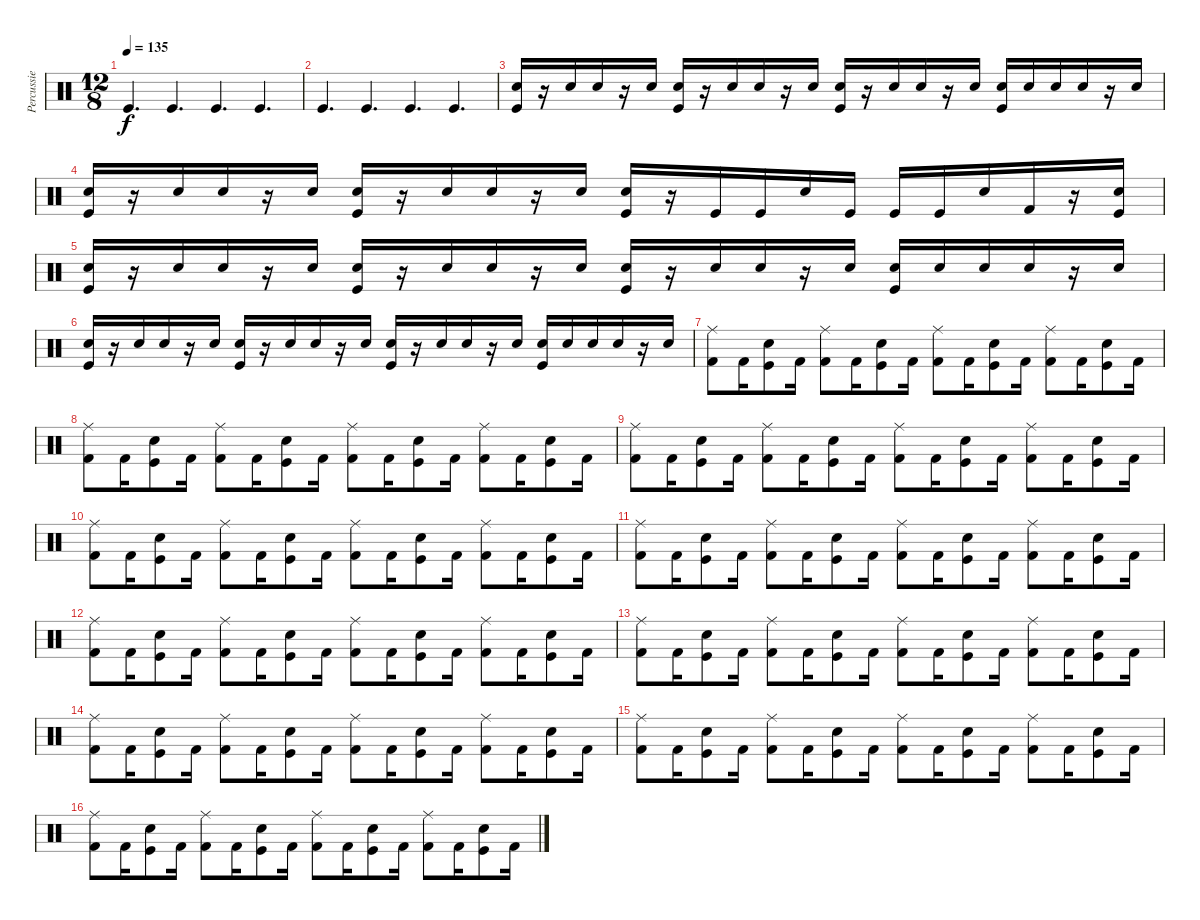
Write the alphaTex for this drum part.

\track ("Percussie" "Percussie") {instrument percussion}
\staff {score}
\articulation defaults
\ts (12 8)
\tempo 135
\clef neutral
\ks c "Kick (hit)".4{d dy f} "Kick (hit)".4{d} "Kick (hit)".4{d} "Kick (hit)".4{d}
|
"Kick (hit)".4{d} "Kick (hit)".4{d} "Kick (hit)".4{d} "Kick (hit)".4{d} |
("Electric Snare (hit)" "Kick (hit)").16 r.16 "Electric Snare (hit)".16 "Electric Snare (hit)".16 r.16 "Electric Snare (hit)".16 ("Electric Snare (hit)" "Kick (hit)").16 r.16 "Electric Snare (hit)".16 "Electric Snare (hit)".16 r.16 "Electric Snare (hit)".16 ("Electric Snare (hit)" "Kick (hit)").16 r.16 "Electric Snare (hit)".16 "Electric Snare (hit)".16 r.16 "Electric Snare (hit)".16 ("Electric Snare (hit)" "Kick (hit)").16 "Electric Snare (hit)".16 "Electric Snare (hit)".16 "Electric Snare (hit)".16 r.16 "Electric Snare (hit)".16 |
("Electric Snare (hit)" "Kick (hit)").16 r.16 "Electric Snare (hit)".16 "Electric Snare (hit)".16 r.16 "Electric Snare (hit)".16 ("Electric Snare (hit)" "Kick (hit)").16 r.16 "Electric Snare (hit)".16 "Electric Snare (hit)".16 r.16 "Electric Snare (hit)".16 ("Electric Snare (hit)" "Kick (hit)").16 r.16 "Kick (hit)".16 "Kick (hit)".16 "Electric Snare (hit)".16 "Kick (hit)".16 "Kick (hit)".16 "Kick (hit)".16 "Electric Snare (hit)".16 "Kick (hit) 2".16 r.16 ("Electric Snare (hit)" "Kick (hit)").16 |
("Electric Snare (hit)" "Kick (hit)").16 r.16 "Electric Snare (hit)".16 "Electric Snare (hit)".16 r.16 "Electric Snare (hit)".16 ("Electric Snare (hit)" "Kick (hit)").16 r.16 "Electric Snare (hit)".16 "Electric Snare (hit)".16 r.16 "Electric Snare (hit)".16 ("Electric Snare (hit)" "Kick (hit)").16 r.16 "Electric Snare (hit)".16 "Electric Snare (hit)".16 r.16 "Electric Snare (hit)".16 ("Electric Snare (hit)" "Kick (hit)").16 "Electric Snare (hit)".16 "Electric Snare (hit)".16 "Electric Snare (hit)".16 r.16 "Electric Snare (hit)".16 |
("Electric Snare (hit)" "Kick (hit)").16 r.16 "Electric Snare (hit)".16 "Electric Snare (hit)".16 r.16 "Electric Snare (hit)".16 ("Electric Snare (hit)" "Kick (hit)").16 r.16 "Electric Snare (hit)".16 "Electric Snare (hit)".16 r.16 "Electric Snare (hit)".16 ("Electric Snare (hit)" "Kick (hit)").16 r.16 "Electric Snare (hit)".16 "Electric Snare (hit)".16 r.16 "Electric Snare (hit)".16 ("Electric Snare (hit)" "Kick (hit)").16 "Electric Snare (hit)".16 "Electric Snare (hit)".16 "Electric Snare (hit)".16 r.16 "Electric Snare (hit)".16 |
("Ride (middle)" "Kick (hit) 2").8 "Kick (hit) 2".16 ("Electric Snare (hit)" "Kick (hit)").8 "Kick (hit) 2".16 ("Ride (middle)" "Kick (hit) 2").8 "Kick (hit) 2".16 ("Electric Snare (hit)" "Kick (hit)").8 "Kick (hit) 2".16 ("Ride (middle)" "Kick (hit) 2").8 "Kick (hit) 2".16 ("Electric Snare (hit)" "Kick (hit)").8 "Kick (hit) 2".16 ("Ride (middle)" "Kick (hit) 2").8 "Kick (hit) 2".16 ("Electric Snare (hit)" "Kick (hit)").8 "Kick (hit) 2".16 |
("Ride (middle)" "Kick (hit) 2").8 "Kick (hit) 2".16 ("Electric Snare (hit)" "Kick (hit)").8 "Kick (hit) 2".16 ("Ride (middle)" "Kick (hit) 2").8 "Kick (hit) 2".16 ("Electric Snare (hit)" "Kick (hit)").8 "Kick (hit) 2".16 ("Ride (middle)" "Kick (hit) 2").8 "Kick (hit) 2".16 ("Electric Snare (hit)" "Kick (hit)").8 "Kick (hit) 2".16 ("Ride (middle)" "Kick (hit) 2").8 "Kick (hit) 2".16 ("Electric Snare (hit)" "Kick (hit)").8 "Kick (hit) 2".16 |
("Ride (middle)" "Kick (hit) 2").8 "Kick (hit) 2".16 ("Electric Snare (hit)" "Kick (hit)").8 "Kick (hit) 2".16 ("Ride (middle)" "Kick (hit) 2").8 "Kick (hit) 2".16 ("Electric Snare (hit)" "Kick (hit)").8 "Kick (hit) 2".16 ("Ride (middle)" "Kick (hit) 2").8 "Kick (hit) 2".16 ("Electric Snare (hit)" "Kick (hit)").8 "Kick (hit) 2".16 ("Ride (middle)" "Kick (hit) 2").8 "Kick (hit) 2".16 ("Electric Snare (hit)" "Kick (hit)").8 "Kick (hit) 2".16 |
("Ride (middle)" "Kick (hit) 2").8 "Kick (hit) 2".16 ("Electric Snare (hit)" "Kick (hit)").8 "Kick (hit) 2".16 ("Ride (middle)" "Kick (hit) 2").8 "Kick (hit) 2".16 ("Electric Snare (hit)" "Kick (hit)").8 "Kick (hit) 2".16 ("Ride (middle)" "Kick (hit) 2").8 "Kick (hit) 2".16 ("Electric Snare (hit)" "Kick (hit)").8 "Kick (hit) 2".16 ("Ride (middle)" "Kick (hit) 2").8 "Kick (hit) 2".16 ("Electric Snare (hit)" "Kick (hit)").8 "Kick (hit) 2".16 |
("Ride (middle)" "Kick (hit) 2").8 "Kick (hit) 2".16 ("Electric Snare (hit)" "Kick (hit)").8 "Kick (hit) 2".16 ("Ride (middle)" "Kick (hit) 2").8 "Kick (hit) 2".16 ("Electric Snare (hit)" "Kick (hit)").8 "Kick (hit) 2".16 ("Ride (middle)" "Kick (hit) 2").8 "Kick (hit) 2".16 ("Electric Snare (hit)" "Kick (hit)").8 "Kick (hit) 2".16 ("Ride (middle)" "Kick (hit) 2").8 "Kick (hit) 2".16 ("Electric Snare (hit)" "Kick (hit)").8 "Kick (hit) 2".16 |
("Ride (middle)" "Kick (hit) 2").8 "Kick (hit) 2".16 ("Electric Snare (hit)" "Kick (hit)").8 "Kick (hit) 2".16 ("Ride (middle)" "Kick (hit) 2").8 "Kick (hit) 2".16 ("Electric Snare (hit)" "Kick (hit)").8 "Kick (hit) 2".16 ("Ride (middle)" "Kick (hit) 2").8 "Kick (hit) 2".16 ("Electric Snare (hit)" "Kick (hit)").8 "Kick (hit) 2".16 ("Ride (middle)" "Kick (hit) 2").8 "Kick (hit) 2".16 ("Electric Snare (hit)" "Kick (hit)").8 "Kick (hit) 2".16 |
("Ride (middle)" "Kick (hit) 2").8 "Kick (hit) 2".16 ("Electric Snare (hit)" "Kick (hit)").8 "Kick (hit) 2".16 ("Ride (middle)" "Kick (hit) 2").8 "Kick (hit) 2".16 ("Electric Snare (hit)" "Kick (hit)").8 "Kick (hit) 2".16 ("Ride (middle)" "Kick (hit) 2").8 "Kick (hit) 2".16 ("Electric Snare (hit)" "Kick (hit)").8 "Kick (hit) 2".16 ("Ride (middle)" "Kick (hit) 2").8 "Kick (hit) 2".16 ("Electric Snare (hit)" "Kick (hit)").8 "Kick (hit) 2".16 |
("Ride (middle)" "Kick (hit) 2").8 "Kick (hit) 2".16 ("Electric Snare (hit)" "Kick (hit)").8 "Kick (hit) 2".16 ("Ride (middle)" "Kick (hit) 2").8 "Kick (hit) 2".16 ("Electric Snare (hit)" "Kick (hit)").8 "Kick (hit) 2".16 ("Ride (middle)" "Kick (hit) 2").8 "Kick (hit) 2".16 ("Electric Snare (hit)" "Kick (hit)").8 "Kick (hit) 2".16 ("Ride (middle)" "Kick (hit) 2").8 "Kick (hit) 2".16 ("Electric Snare (hit)" "Kick (hit)").8 "Kick (hit) 2".16 |
("Ride (middle)" "Kick (hit) 2").8 "Kick (hit) 2".16 ("Electric Snare (hit)" "Kick (hit)").8 "Kick (hit) 2".16 ("Ride (middle)" "Kick (hit) 2").8 "Kick (hit) 2".16 ("Electric Snare (hit)" "Kick (hit)").8 "Kick (hit) 2".16 ("Ride (middle)" "Kick (hit) 2").8 "Kick (hit) 2".16 ("Electric Snare (hit)" "Kick (hit)").8 "Kick (hit) 2".16 ("Ride (middle)" "Kick (hit) 2").8 "Kick (hit) 2".16 ("Electric Snare (hit)" "Kick (hit)").8 "Kick (hit) 2".16 |
("Ride (middle)" "Kick (hit) 2").8 "Kick (hit) 2".16 ("Electric Snare (hit)" "Kick (hit)").8 "Kick (hit) 2".16 ("Ride (middle)" "Kick (hit) 2").8 "Kick (hit) 2".16 ("Electric Snare (hit)" "Kick (hit)").8 "Kick (hit) 2".16 ("Ride (middle)" "Kick (hit) 2").8 "Kick (hit) 2".16 ("Electric Snare (hit)" "Kick (hit)").8 "Kick (hit) 2".16 ("Ride (middle)" "Kick (hit) 2").8 "Kick (hit) 2".16 ("Electric Snare (hit)" "Kick (hit)").8 "Kick (hit) 2".16
